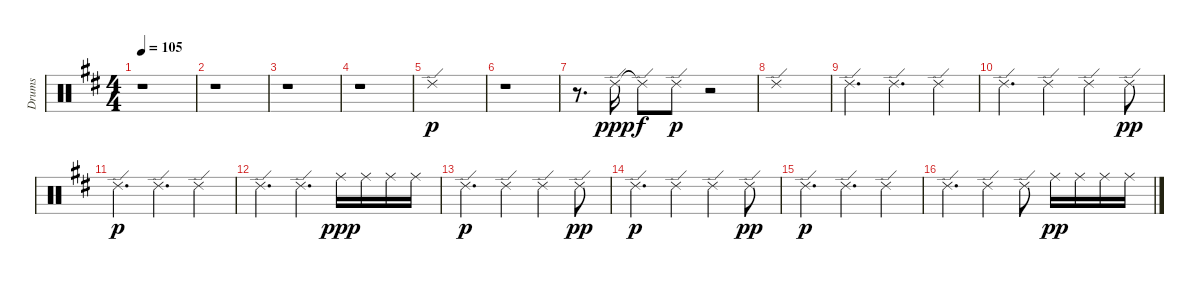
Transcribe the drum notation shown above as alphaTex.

\track ("Drums" "Drums") {instrument percussion}
\staff {score}
\articulation defaults
\ts (4 4)
\tempo 105
\clef neutral
\ks d
r.1{dy p} |
r.1 |
r.1 |
r.1 |
"Ride (edge) 2".1 |
r.1 |
r.8{d} "Ride (edge) 2".16{dy ppp} "Ride (edge) 2"{t}.8{dy f} "Ride (edge) 2".8{dy p} r.2 |
"Ride (edge) 2".1 |
"Ride (edge) 2".4{d} "Ride (edge) 2".4{d} "Ride (edge) 2".4 |
"Ride (edge) 2".4{d} "Ride (edge) 2".4 "Ride (edge) 2".4 "Ride (edge) 2".8{dy pp} |
"Ride (edge) 2".4{d dy p} "Ride (edge) 2".4{d} "Ride (edge) 2".4 |
"Ride (edge) 2".4{d} "Ride (edge) 2".4{d} "Ride (middle)".16{dy ppp} "Ride (middle)".16 "Ride (middle)".16 "Ride (middle)".16 |
"Ride (edge) 2".4{d dy p} "Ride (edge) 2".4 "Ride (edge) 2".4 "Ride (edge) 2".8{dy pp} |
"Ride (edge) 2".4{d dy p} "Ride (edge) 2".4 "Ride (edge) 2".4 "Ride (edge) 2".8{dy pp} |
"Ride (edge) 2".4{d dy p} "Ride (edge) 2".4{d} "Ride (edge) 2".4 |
"Ride (edge) 2".4{d} "Ride (edge) 2".4 "Ride (edge) 2".8 "Ride (middle)".16{dy pp} "Ride (middle)".16 "Ride (middle)".16 "Ride (middle)".16
